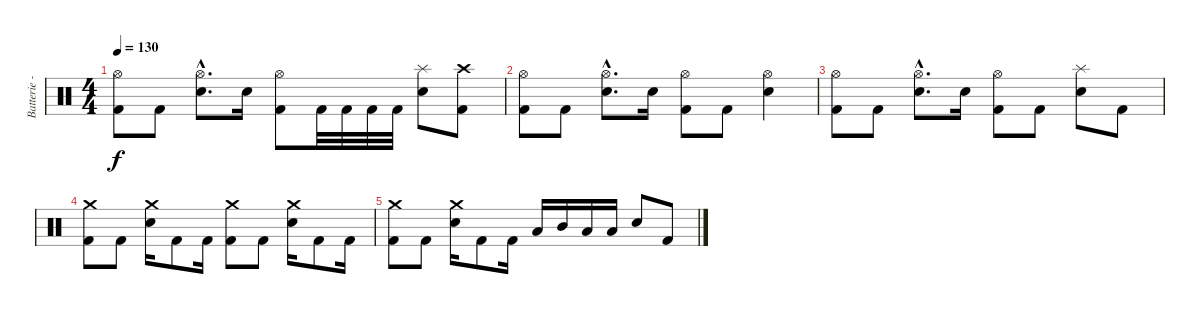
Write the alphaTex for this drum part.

\track ("Batterie - Anton" "Batterie -") {instrument percussion}
\staff {score}
\articulation defaults
\ts (4 4)
\tempo 130
\clef neutral
\ks c
("Hi-Hat (open)" "Kick (hit) 2").8{dy f} "Kick (hit) 2".8 ("Hi-Hat (open)"{hac} "Electric Snare (hit)"{hac}).8{d} "Electric Snare (hit)".16 ("Hi-Hat (open)" "Kick (hit) 2").8 "Kick (hit) 2".32 "Kick (hit) 2".32 "Kick (hit) 2".32 "Kick (hit) 2".32 ("Splash (hit)" "Electric Snare (hit)").8 ("Crash high (hit)" "Kick (hit) 2").8 |
("Hi-Hat (open)" "Kick (hit) 2").8 "Kick (hit) 2".8 ("Hi-Hat (open)"{hac} "Electric Snare (hit)"{hac}).8{d} "Electric Snare (hit)".16 ("Hi-Hat (open)" "Kick (hit) 2").8 "Kick (hit) 2".8 ("Hi-Hat (open)" "Electric Snare (hit)").4 |
("Hi-Hat (open)" "Kick (hit) 2").8 "Kick (hit) 2".8 ("Hi-Hat (open)"{hac} "Electric Snare (hit)"{hac}).8{d} "Electric Snare (hit)".16 ("Hi-Hat (open)" "Kick (hit) 2").8 "Kick (hit) 2".8 ("Splash (hit)" "Electric Snare (hit)").8 "Kick (hit) 2".8 |
("Crash medium (hit)" "Kick (hit) 2").8 "Kick (hit) 2".8 ("Crash medium (hit)" "Electric Snare (hit)").16 "Kick (hit) 2".8 "Kick (hit) 2".16 ("Crash medium (hit)" "Kick (hit) 2").8 "Kick (hit) 2".8 ("Crash medium (hit)" "Electric Snare (hit)").16 "Kick (hit) 2".8 "Kick (hit) 2".16 |
("Crash medium (hit)" "Kick (hit) 2").8 "Kick (hit) 2".8 ("Crash medium (hit)" "Electric Snare (hit)").16 "Kick (hit) 2".8 "Kick (hit) 2".16 "Low Tom (hit)".16 "Mid Tom (hit)".16 "Low Tom (hit)".16 "Low Tom (hit)".16 "Electric Snare (hit)".8 "Kick (hit) 2".8
